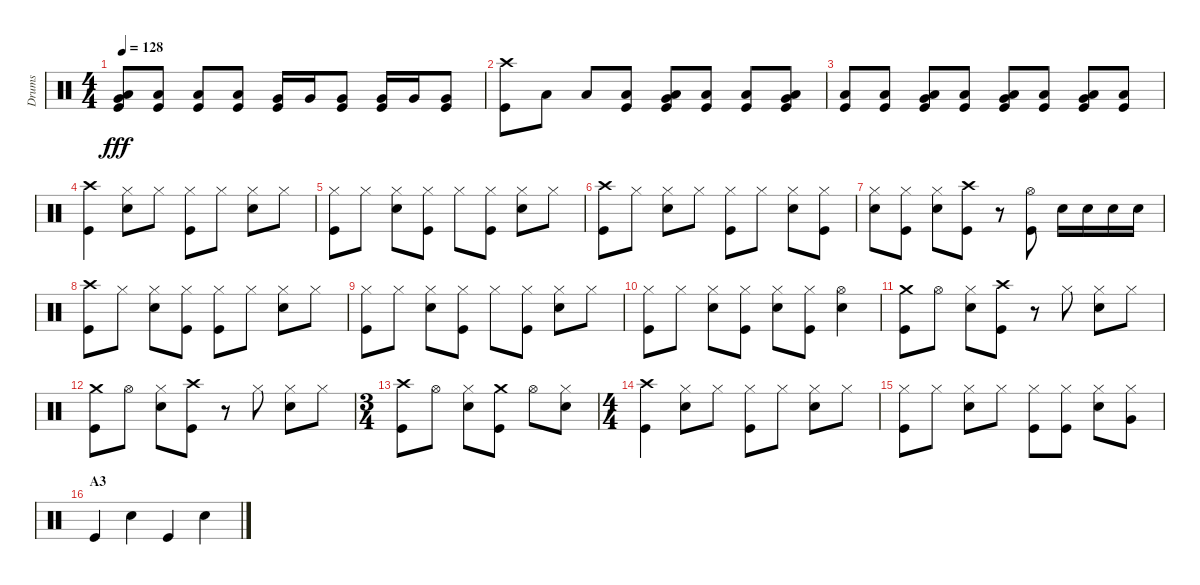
\track ("Drums" "Drums") {instrument percussion}
\staff {score}
\articulation defaults
\ts (4 4)
\tempo 128
\clef neutral
\ks c
("Very Low Tom (hit)" "Low Floor Tom (hit)" "Kick (hit)").8{dy fff} ("Low Floor Tom (hit)" "Kick (hit)").8 ("Low Floor Tom (hit)" "Kick (hit)").8 ("Low Floor Tom (hit)" "Kick (hit)").8 ("Very Low Tom (hit)" "Kick (hit)").16 "Very Low Tom (hit)".16 ("Very Low Tom (hit)" "Kick (hit)").8 ("Very Low Tom (hit)" "Kick (hit)").16 "Very Low Tom (hit)".16 ("Very Low Tom (hit)" "Kick (hit)").8 |
("Crash high (hit)" "Kick (hit)").8 "Low Floor Tom (hit)".8 "Low Floor Tom (hit)".8 ("Low Floor Tom (hit)" "Kick (hit)").8 ("Very Low Tom (hit)" "Low Floor Tom (hit)" "Kick (hit)").8 ("Low Floor Tom (hit)" "Kick (hit)").8 ("Low Floor Tom (hit)" "Kick (hit)").8 ("Very Low Tom (hit)" "Low Floor Tom (hit)" "Kick (hit)").8 |
("Low Floor Tom (hit)" "Kick (hit)").8 ("Low Floor Tom (hit)" "Kick (hit)").8 ("Very Low Tom (hit)" "Low Floor Tom (hit)" "Kick (hit)").8 ("Low Floor Tom (hit)" "Kick (hit)").8 ("Very Low Tom (hit)" "Low Floor Tom (hit)" "Kick (hit)").8 ("Low Floor Tom (hit)" "Kick (hit)").8 ("Very Low Tom (hit)" "Low Floor Tom (hit)" "Kick (hit)").8 ("Low Floor Tom (hit)" "Kick (hit)").8 |
("Crash high (hit)" "Kick (hit)").4 ("Hi-Hat (closed)" "Snare (hit) 2").8 "Hi-Hat (closed)".8 ("Hi-Hat (closed)" "Kick (hit)").8 "Hi-Hat (closed)".8 ("Hi-Hat (closed)" "Snare (hit) 2").8 "Hi-Hat (closed)".8 |
("Hi-Hat (closed)" "Kick (hit)").8 "Hi-Hat (closed)".8 ("Hi-Hat (closed)" "Snare (hit) 2").8 ("Hi-Hat (closed)" "Kick (hit)").8 "Hi-Hat (closed)".8 ("Hi-Hat (closed)" "Kick (hit)").8 ("Hi-Hat (closed)" "Snare (hit) 2").8 "Hi-Hat (closed)".8 |
("Crash high (hit)" "Kick (hit)").8 "Hi-Hat (closed)".8 ("Hi-Hat (closed)" "Snare (hit) 2").8 "Hi-Hat (closed)".8 ("Hi-Hat (closed)" "Kick (hit)").8 "Hi-Hat (closed)".8 ("Hi-Hat (closed)" "Snare (hit) 2").8 ("Hi-Hat (closed)" "Kick (hit)").8 |
("Hi-Hat (closed)" "Snare (hit) 2").8 ("Hi-Hat (closed)" "Kick (hit)").8 ("Hi-Hat (closed)" "Snare (hit) 2").8 ("Crash high (hit)" "Kick (hit)").8 r.8 ("Hi-Hat (open)" "Kick (hit)").8 "Snare (hit) 2".16 "Snare (hit) 2".16 "Snare (hit) 2".16 "Snare (hit) 2".16 |
("Crash high (hit)" "Kick (hit)").8 "Hi-Hat (closed)".8 ("Hi-Hat (closed)" "Snare (hit) 2").8 ("Hi-Hat (closed)" "Kick (hit)").8 ("Hi-Hat (closed)" "Kick (hit)").8 "Hi-Hat (closed)".8 ("Hi-Hat (closed)" "Snare (hit) 2").8 "Hi-Hat (closed)".8 |
("Hi-Hat (closed)" "Kick (hit)").8 "Hi-Hat (closed)".8 ("Hi-Hat (closed)" "Snare (hit) 2").8 ("Hi-Hat (closed)" "Kick (hit)").8 "Hi-Hat (closed)".8 ("Hi-Hat (closed)" "Kick (hit)").8 ("Hi-Hat (closed)" "Snare (hit) 2").8 "Hi-Hat (closed)".8 |
("Hi-Hat (closed)" "Kick (hit)").8 "Hi-Hat (closed)".8 ("Hi-Hat (closed)" "Snare (hit) 2").8 ("Hi-Hat (closed)" "Kick (hit)").8 ("Hi-Hat (closed)" "Snare (hit) 2").8 ("Hi-Hat (closed)" "Kick (hit)").8 ("Hi-Hat (open)" "Snare (hit) 2").4 |
("Crash medium (hit)" "Kick (hit)").8 "Hi-Hat (open)".8 ("Hi-Hat (closed)" "Snare (hit) 2").8 ("Crash high (hit)" "Kick (hit)").8 r.8 "Hi-Hat (closed)".8 ("Hi-Hat (closed)" "Snare (hit) 2").8 "Hi-Hat (closed)".8 |
("Crash medium (hit)" "Kick (hit)").8 "Hi-Hat (open)".8 ("Hi-Hat (closed)" "Snare (hit) 2").8 ("Crash high (hit)" "Kick (hit)").8 r.8 "Hi-Hat (closed)".8 ("Hi-Hat (closed)" "Snare (hit) 2").8 "Hi-Hat (closed)".8 |
\ts (3 4)
("Crash high (hit)" "Kick (hit)").8 "Hi-Hat (open)".8 ("Hi-Hat (closed)" "Snare (hit) 2").8 ("Crash medium (hit)" "Kick (hit)").8 "Hi-Hat (open)".8 ("Hi-Hat (closed)" "Snare (hit) 2").8 |
\ts (4 4)
("Crash high (hit)" "Kick (hit)").4 ("Hi-Hat (closed)" "Snare (hit) 2").8 "Hi-Hat (closed)".8 ("Hi-Hat (closed)" "Kick (hit)").8 "Hi-Hat (closed)".8 ("Hi-Hat (closed)" "Snare (hit) 2").8 "Hi-Hat (closed)".8 |
("Hi-Hat (closed)" "Kick (hit)").8 "Hi-Hat (closed)".8 ("Hi-Hat (closed)" "Snare (hit) 2").8 "Hi-Hat (closed)".8 ("Hi-Hat (closed)" "Kick (hit)").8 ("Hi-Hat (closed)" "Kick (hit)").8 ("Hi-Hat (closed)" "Snare (hit) 2").8 ("Hi-Hat (closed)" "Very Low Tom (hit)").8 |
\section ("" "A3")
"Kick (hit)".4 "Snare (hit) 2".4 "Kick (hit)".4 "Snare (hit) 2".4
